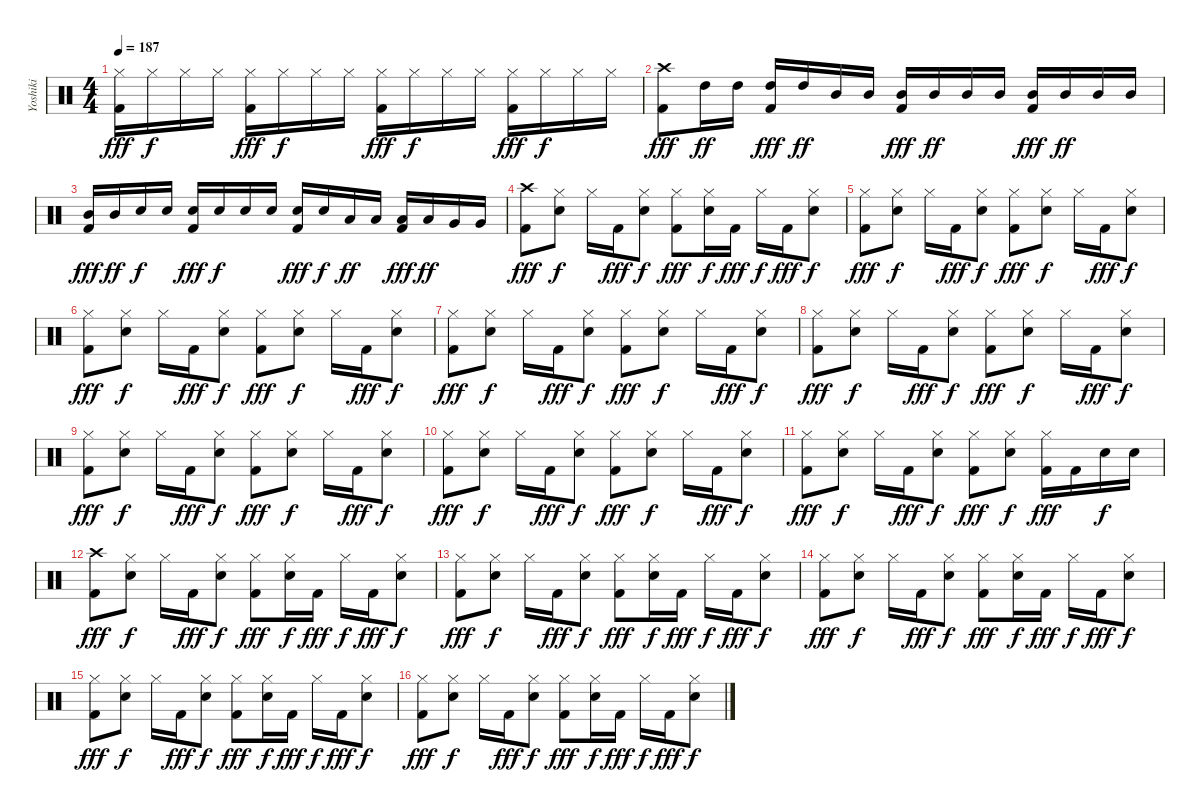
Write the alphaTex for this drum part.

\track ("Yoshiki" "Yoshiki") {instrument percussion}
\staff {score}
\articulation defaults
\ts (4 4)
\tempo 187
\clef neutral
\ks c
("Hi-Hat (closed)" "Kick (hit) 2").16{dy fff} "Hi-Hat (closed)".16{dy f} "Hi-Hat (closed)".16 "Hi-Hat (closed)".16 ("Hi-Hat (closed)" "Kick (hit) 2").16{dy fff} "Hi-Hat (closed)".16{dy f} "Hi-Hat (closed)".16 "Hi-Hat (closed)".16 ("Hi-Hat (closed)" "Kick (hit) 2").16{dy fff} "Hi-Hat (closed)".16{dy f} "Hi-Hat (closed)".16 "Hi-Hat (closed)".16 ("Hi-Hat (closed)" "Kick (hit) 2").16{dy fff} "Hi-Hat (closed)".16{dy f} "Hi-Hat (closed)".16 "Hi-Hat (closed)".16 |
("Crash high (hit)" "Kick (hit) 2").8{dy fff} "High Tom (hit)".16{dy ff} "High Tom (hit)".16 ("High Tom (hit)" "Kick (hit) 2").16{dy fff} "High Tom (hit)".16{dy ff} "Mid Tom (hit)".16 "Mid Tom (hit)".16 ("Mid Tom (hit)" "Kick (hit) 2").16{dy fff} "Mid Tom (hit)".16{dy ff} "Mid Tom (hit)".16 "Mid Tom (hit)".16 ("Mid Tom (hit)" "Kick (hit) 2").16{dy fff} "Mid Tom (hit)".16{dy ff} "Mid Tom (hit)".16 "Mid Tom (hit)".16 |
("Mid Tom (hit)" "Kick (hit) 2").16{dy fff} "Mid Tom (hit)".16{dy ff} "Electric Snare (hit)".16{dy f} "Electric Snare (hit)".16 ("Electric Snare (hit)" "Kick (hit) 2").16{dy fff} "Electric Snare (hit)".16{dy f} "Electric Snare (hit)".16 "Electric Snare (hit)".16 ("Electric Snare (hit)" "Kick (hit) 2").16{dy fff} "Electric Snare (hit)".16{dy f} "Low Tom (hit)".16{dy ff} "Low Tom (hit)".16 ("Low Tom (hit)" "Kick (hit) 2").16{dy fff} "Low Tom (hit)".16{dy ff} "Very Low Tom (hit)".16 "Very Low Tom (hit)".16 |
("Crash high (hit)" "Kick (hit) 2").8{dy fff} ("Hi-Hat (closed)" "Electric Snare (hit)").8{dy f} "Hi-Hat (closed)".16 "Kick (hit) 2".16{dy fff} ("Hi-Hat (closed)" "Electric Snare (hit)").8{dy f} ("Hi-Hat (closed)" "Kick (hit) 2").8{dy fff} ("Hi-Hat (closed)" "Electric Snare (hit)").16{dy f} "Kick (hit) 2".16{dy fff} "Hi-Hat (closed)".16{dy f} "Kick (hit) 2".16{dy fff} ("Hi-Hat (closed)" "Electric Snare (hit)").8{dy f} |
("Hi-Hat (closed)" "Kick (hit) 2").8{dy fff} ("Hi-Hat (closed)" "Electric Snare (hit)").8{dy f} "Hi-Hat (closed)".16 "Kick (hit) 2".16{dy fff} ("Hi-Hat (closed)" "Electric Snare (hit)").8{dy f} ("Hi-Hat (closed)" "Kick (hit) 2").8{dy fff} ("Hi-Hat (closed)" "Electric Snare (hit)").8{dy f} "Hi-Hat (closed)".16 "Kick (hit) 2".16{dy fff} ("Hi-Hat (closed)" "Electric Snare (hit)").8{dy f} |
("Hi-Hat (closed)" "Kick (hit) 2").8{dy fff} ("Hi-Hat (closed)" "Electric Snare (hit)").8{dy f} "Hi-Hat (closed)".16 "Kick (hit) 2".16{dy fff} ("Hi-Hat (closed)" "Electric Snare (hit)").8{dy f} ("Hi-Hat (closed)" "Kick (hit) 2").8{dy fff} ("Hi-Hat (closed)" "Electric Snare (hit)").8{dy f} "Hi-Hat (closed)".16 "Kick (hit) 2".16{dy fff} ("Hi-Hat (closed)" "Electric Snare (hit)").8{dy f} |
("Hi-Hat (closed)" "Kick (hit) 2").8{dy fff} ("Hi-Hat (closed)" "Electric Snare (hit)").8{dy f} "Hi-Hat (closed)".16 "Kick (hit) 2".16{dy fff} ("Hi-Hat (closed)" "Electric Snare (hit)").8{dy f} ("Hi-Hat (closed)" "Kick (hit) 2").8{dy fff} ("Hi-Hat (closed)" "Electric Snare (hit)").8{dy f} "Hi-Hat (closed)".16 "Kick (hit) 2".16{dy fff} ("Hi-Hat (closed)" "Electric Snare (hit)").8{dy f} |
("Hi-Hat (closed)" "Kick (hit) 2").8{dy fff} ("Hi-Hat (closed)" "Electric Snare (hit)").8{dy f} "Hi-Hat (closed)".16 "Kick (hit) 2".16{dy fff} ("Hi-Hat (closed)" "Electric Snare (hit)").8{dy f} ("Hi-Hat (closed)" "Kick (hit) 2").8{dy fff} ("Hi-Hat (closed)" "Electric Snare (hit)").8{dy f} "Hi-Hat (closed)".16 "Kick (hit) 2".16{dy fff} ("Hi-Hat (closed)" "Electric Snare (hit)").8{dy f} |
("Hi-Hat (closed)" "Kick (hit) 2").8{dy fff} ("Hi-Hat (closed)" "Electric Snare (hit)").8{dy f} "Hi-Hat (closed)".16 "Kick (hit) 2".16{dy fff} ("Hi-Hat (closed)" "Electric Snare (hit)").8{dy f} ("Hi-Hat (closed)" "Kick (hit) 2").8{dy fff} ("Hi-Hat (closed)" "Electric Snare (hit)").8{dy f} "Hi-Hat (closed)".16 "Kick (hit) 2".16{dy fff} ("Hi-Hat (closed)" "Electric Snare (hit)").8{dy f} |
("Hi-Hat (closed)" "Kick (hit) 2").8{dy fff} ("Hi-Hat (closed)" "Electric Snare (hit)").8{dy f} "Hi-Hat (closed)".16 "Kick (hit) 2".16{dy fff} ("Hi-Hat (closed)" "Electric Snare (hit)").8{dy f} ("Hi-Hat (closed)" "Kick (hit) 2").8{dy fff} ("Hi-Hat (closed)" "Electric Snare (hit)").8{dy f} "Hi-Hat (closed)".16 "Kick (hit) 2".16{dy fff} ("Hi-Hat (closed)" "Electric Snare (hit)").8{dy f} |
("Hi-Hat (closed)" "Kick (hit) 2").8{dy fff} ("Hi-Hat (closed)" "Electric Snare (hit)").8{dy f} "Hi-Hat (closed)".16 "Kick (hit) 2".16{dy fff} ("Hi-Hat (closed)" "Electric Snare (hit)").8{dy f} ("Hi-Hat (closed)" "Kick (hit) 2").8{dy fff} ("Hi-Hat (closed)" "Electric Snare (hit)").8{dy f} ("Hi-Hat (closed)" "Kick (hit) 2").16{dy fff} "Kick (hit) 2".16 "Electric Snare (hit)".16{dy f} "Electric Snare (hit)".16 |
("Crash high (hit)" "Kick (hit) 2").8{dy fff} ("Hi-Hat (closed)" "Electric Snare (hit)").8{dy f} "Hi-Hat (closed)".16 "Kick (hit) 2".16{dy fff} ("Hi-Hat (closed)" "Electric Snare (hit)").8{dy f} ("Hi-Hat (closed)" "Kick (hit) 2").8{dy fff} ("Hi-Hat (closed)" "Electric Snare (hit)").16{dy f} "Kick (hit) 2".16{dy fff} "Hi-Hat (closed)".16{dy f} "Kick (hit) 2".16{dy fff} ("Hi-Hat (closed)" "Electric Snare (hit)").8{dy f} |
("Hi-Hat (closed)" "Kick (hit) 2").8{dy fff} ("Hi-Hat (closed)" "Electric Snare (hit)").8{dy f} "Hi-Hat (closed)".16 "Kick (hit) 2".16{dy fff} ("Hi-Hat (closed)" "Electric Snare (hit)").8{dy f} ("Hi-Hat (closed)" "Kick (hit) 2").8{dy fff} ("Hi-Hat (closed)" "Electric Snare (hit)").16{dy f} "Kick (hit) 2".16{dy fff} "Hi-Hat (closed)".16{dy f} "Kick (hit) 2".16{dy fff} ("Hi-Hat (closed)" "Electric Snare (hit)").8{dy f} |
("Hi-Hat (closed)" "Kick (hit) 2").8{dy fff} ("Hi-Hat (closed)" "Electric Snare (hit)").8{dy f} "Hi-Hat (closed)".16 "Kick (hit) 2".16{dy fff} ("Hi-Hat (closed)" "Electric Snare (hit)").8{dy f} ("Hi-Hat (closed)" "Kick (hit) 2").8{dy fff} ("Hi-Hat (closed)" "Electric Snare (hit)").16{dy f} "Kick (hit) 2".16{dy fff} "Hi-Hat (closed)".16{dy f} "Kick (hit) 2".16{dy fff} ("Hi-Hat (closed)" "Electric Snare (hit)").8{dy f} |
("Hi-Hat (closed)" "Kick (hit) 2").8{dy fff} ("Hi-Hat (closed)" "Electric Snare (hit)").8{dy f} "Hi-Hat (closed)".16 "Kick (hit) 2".16{dy fff} ("Hi-Hat (closed)" "Electric Snare (hit)").8{dy f} ("Hi-Hat (closed)" "Kick (hit) 2").8{dy fff} ("Hi-Hat (closed)" "Electric Snare (hit)").16{dy f} "Kick (hit) 2".16{dy fff} "Hi-Hat (closed)".16{dy f} "Kick (hit) 2".16{dy fff} ("Hi-Hat (closed)" "Electric Snare (hit)").8{dy f} |
("Hi-Hat (closed)" "Kick (hit) 2").8{dy fff} ("Hi-Hat (closed)" "Electric Snare (hit)").8{dy f} "Hi-Hat (closed)".16 "Kick (hit) 2".16{dy fff} ("Hi-Hat (closed)" "Electric Snare (hit)").8{dy f} ("Hi-Hat (closed)" "Kick (hit) 2").8{dy fff} ("Hi-Hat (closed)" "Electric Snare (hit)").16{dy f} "Kick (hit) 2".16{dy fff} "Hi-Hat (closed)".16{dy f} "Kick (hit) 2".16{dy fff} ("Hi-Hat (closed)" "Electric Snare (hit)").8{dy f}
